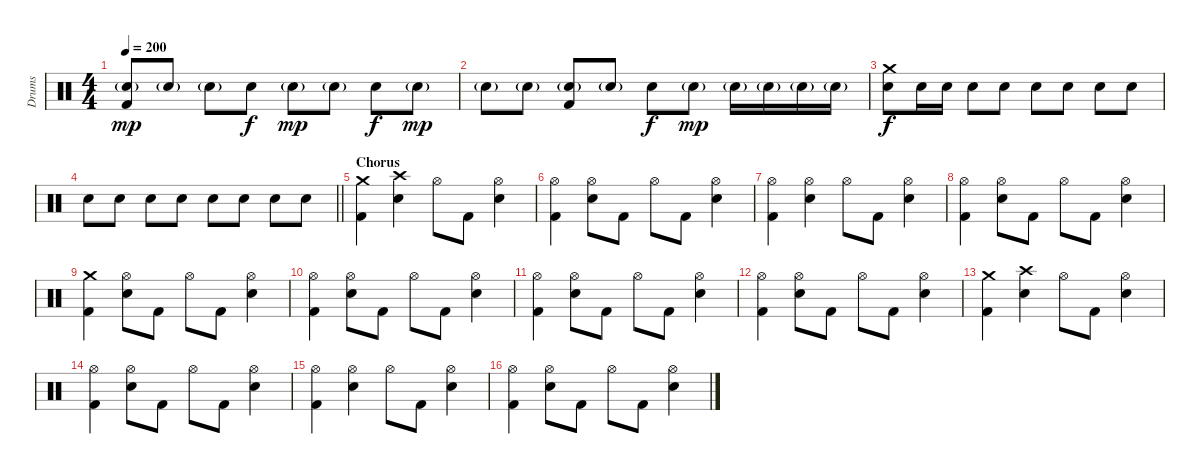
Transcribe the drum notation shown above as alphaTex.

\track ("Drums" "Drums") {instrument percussion}
\staff {score}
\articulation defaults
\ts (4 4)
\tempo 200
\clef neutral
\ks c
("Electric Snare (hit)"{g} "Kick (hit) 2").8{dy mp} "Electric Snare (hit)"{g}.8 "Electric Snare (hit)"{g}.8 "Electric Snare (hit)".8{dy f} "Electric Snare (hit)"{g}.8{dy mp} "Electric Snare (hit)"{g}.8 "Electric Snare (hit)".8{dy f} "Electric Snare (hit)"{g}.8{dy mp} |
"Electric Snare (hit)"{g}.8 "Electric Snare (hit)"{g}.8 ("Electric Snare (hit)"{g} "Kick (hit) 2").8 "Electric Snare (hit)"{g}.8 "Electric Snare (hit)".8{dy f} "Electric Snare (hit)"{g}.8{dy mp} "Electric Snare (hit)"{g}.16 "Electric Snare (hit)"{g}.16 "Electric Snare (hit)"{g}.16 "Electric Snare (hit)"{g}.16 |
("Crash medium (hit)" "Electric Snare (hit)").8{dy f} "Electric Snare (hit)".16 "Electric Snare (hit)".16 "Electric Snare (hit)".8 "Electric Snare (hit)".8 "Electric Snare (hit)".8 "Electric Snare (hit)".8 "Electric Snare (hit)".8 "Electric Snare (hit)".8 |
\barLineRight lightlight "Electric Snare (hit)".8 "Electric Snare (hit)".8 "Electric Snare (hit)".8 "Electric Snare (hit)".8 "Electric Snare (hit)".8 "Electric Snare (hit)".8 "Electric Snare (hit)".8 "Electric Snare (hit)".8
|
\section ("" "Chorus")
("Crash medium (hit)" "Kick (hit) 2").4 ("Crash high (hit)" "Electric Snare (hit)").4 "Hi-Hat (open)".8 "Kick (hit) 2".8 ("Hi-Hat (open)" "Electric Snare (hit)").4 |
("Hi-Hat (open)" "Kick (hit) 2").4 ("Hi-Hat (open)" "Electric Snare (hit)").8 "Kick (hit) 2".8 "Hi-Hat (open)".8 "Kick (hit) 2".8 ("Hi-Hat (open)" "Electric Snare (hit)").4 |
("Hi-Hat (open)" "Kick (hit) 2").4 ("Hi-Hat (open)" "Electric Snare (hit)").4 "Hi-Hat (open)".8 "Kick (hit) 2".8 ("Hi-Hat (open)" "Electric Snare (hit)").4 |
("Hi-Hat (open)" "Kick (hit) 2").4 ("Hi-Hat (open)" "Electric Snare (hit)").8 "Kick (hit) 2".8 "Hi-Hat (open)".8 "Kick (hit) 2".8 ("Hi-Hat (open)" "Electric Snare (hit)").4 |
("Crash medium (hit)" "Kick (hit) 2").4 ("Hi-Hat (open)" "Electric Snare (hit)").8 "Kick (hit) 2".8 "Hi-Hat (open)".8 "Kick (hit) 2".8 ("Hi-Hat (open)" "Electric Snare (hit)").4 |
("Hi-Hat (open)" "Kick (hit) 2").4 ("Hi-Hat (open)" "Electric Snare (hit)").8 "Kick (hit) 2".8 "Hi-Hat (open)".8 "Kick (hit) 2".8 ("Hi-Hat (open)" "Electric Snare (hit)").4 |
("Hi-Hat (open)" "Kick (hit) 2").4 ("Hi-Hat (open)" "Electric Snare (hit)").8 "Kick (hit) 2".8 "Hi-Hat (open)".8 "Kick (hit) 2".8 ("Hi-Hat (open)" "Electric Snare (hit)").4 |
("Hi-Hat (open)" "Kick (hit) 2").4 ("Hi-Hat (open)" "Electric Snare (hit)").8 "Kick (hit) 2".8 "Hi-Hat (open)".8 "Kick (hit) 2".8 ("Hi-Hat (open)" "Electric Snare (hit)").4 |
("Crash medium (hit)" "Kick (hit) 2").4 ("Crash high (hit)" "Electric Snare (hit)").4 "Hi-Hat (open)".8 "Kick (hit) 2".8 ("Hi-Hat (open)" "Electric Snare (hit)").4 |
("Hi-Hat (open)" "Kick (hit) 2").4 ("Hi-Hat (open)" "Electric Snare (hit)").8 "Kick (hit) 2".8 "Hi-Hat (open)".8 "Kick (hit) 2".8 ("Hi-Hat (open)" "Electric Snare (hit)").4 |
("Hi-Hat (open)" "Kick (hit) 2").4 ("Hi-Hat (open)" "Electric Snare (hit)").4 "Hi-Hat (open)".8 "Kick (hit) 2".8 ("Hi-Hat (open)" "Electric Snare (hit)").4 |
("Hi-Hat (open)" "Kick (hit) 2").4 ("Hi-Hat (open)" "Electric Snare (hit)").8 "Kick (hit) 2".8 "Hi-Hat (open)".8 "Kick (hit) 2".8 ("Hi-Hat (open)" "Electric Snare (hit)").4
